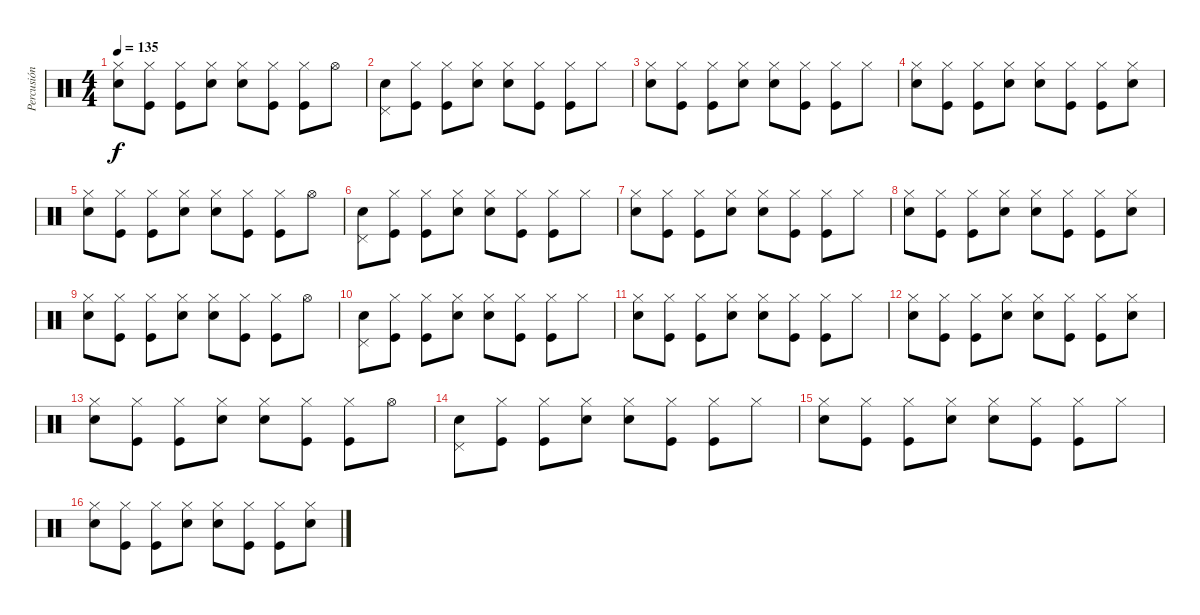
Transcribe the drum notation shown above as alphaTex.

\track ("Percusión" "Percusión") {instrument percussion}
\staff {score}
\articulation defaults
\ts (4 4)
\tempo 135
\clef neutral
\ks c
("Hi-Hat (closed)" "Snare (hit) 2").8{dy f} ("Hi-Hat (closed)" "Kick (hit)").8 ("Hi-Hat (closed)" "Kick (hit)").8 ("Hi-Hat (closed)" "Snare (hit) 2").8 ("Hi-Hat (closed)" "Snare (hit) 2").8 ("Hi-Hat (closed)" "Kick (hit)").8 ("Hi-Hat (closed)" "Kick (hit)").8 "Hi-Hat (open)".8 |
("Pedal Hi-Hat (hit)" "Snare (hit) 2").8 ("Hi-Hat (closed)" "Kick (hit)").8 ("Hi-Hat (closed)" "Kick (hit)").8 ("Hi-Hat (closed)" "Snare (hit) 2").8 ("Hi-Hat (closed)" "Snare (hit) 2").8 ("Hi-Hat (closed)" "Kick (hit)").8 ("Hi-Hat (closed)" "Kick (hit)").8 "Hi-Hat (closed)".8 |
("Hi-Hat (closed)" "Snare (hit) 2").8 ("Hi-Hat (closed)" "Kick (hit)").8 ("Hi-Hat (closed)" "Kick (hit)").8 ("Hi-Hat (closed)" "Snare (hit) 2").8 ("Hi-Hat (closed)" "Snare (hit) 2").8 ("Hi-Hat (closed)" "Kick (hit)").8 ("Hi-Hat (closed)" "Kick (hit)").8 "Hi-Hat (closed)".8 |
("Hi-Hat (closed)" "Snare (hit) 2").8 ("Hi-Hat (closed)" "Kick (hit)").8 ("Hi-Hat (closed)" "Kick (hit)").8 ("Hi-Hat (closed)" "Snare (hit) 2").8 ("Hi-Hat (closed)" "Snare (hit) 2").8 ("Hi-Hat (closed)" "Kick (hit)").8 ("Hi-Hat (closed)" "Kick (hit)").8 ("Hi-Hat (closed)" "Snare (hit) 2").8 |
("Hi-Hat (closed)" "Snare (hit) 2").8 ("Hi-Hat (closed)" "Kick (hit)").8 ("Hi-Hat (closed)" "Kick (hit)").8 ("Hi-Hat (closed)" "Snare (hit) 2").8 ("Hi-Hat (closed)" "Snare (hit) 2").8 ("Hi-Hat (closed)" "Kick (hit)").8 ("Hi-Hat (closed)" "Kick (hit)").8 "Hi-Hat (open)".8 |
("Pedal Hi-Hat (hit)" "Snare (hit) 2").8 ("Hi-Hat (closed)" "Kick (hit)").8 ("Hi-Hat (closed)" "Kick (hit)").8 ("Hi-Hat (closed)" "Snare (hit) 2").8 ("Hi-Hat (closed)" "Snare (hit) 2").8 ("Hi-Hat (closed)" "Kick (hit)").8 ("Hi-Hat (closed)" "Kick (hit)").8 "Hi-Hat (closed)".8 |
("Hi-Hat (closed)" "Snare (hit) 2").8 ("Hi-Hat (closed)" "Kick (hit)").8 ("Hi-Hat (closed)" "Kick (hit)").8 ("Hi-Hat (closed)" "Snare (hit) 2").8 ("Hi-Hat (closed)" "Snare (hit) 2").8 ("Hi-Hat (closed)" "Kick (hit)").8 ("Hi-Hat (closed)" "Kick (hit)").8 "Hi-Hat (closed)".8 |
("Hi-Hat (closed)" "Snare (hit) 2").8 ("Hi-Hat (closed)" "Kick (hit)").8 ("Hi-Hat (closed)" "Kick (hit)").8 ("Hi-Hat (closed)" "Snare (hit) 2").8 ("Hi-Hat (closed)" "Snare (hit) 2").8 ("Hi-Hat (closed)" "Kick (hit)").8 ("Hi-Hat (closed)" "Kick (hit)").8 ("Hi-Hat (closed)" "Snare (hit) 2").8 |
("Hi-Hat (closed)" "Snare (hit) 2").8 ("Hi-Hat (closed)" "Kick (hit)").8 ("Hi-Hat (closed)" "Kick (hit)").8 ("Hi-Hat (closed)" "Snare (hit) 2").8 ("Hi-Hat (closed)" "Snare (hit) 2").8 ("Hi-Hat (closed)" "Kick (hit)").8 ("Hi-Hat (closed)" "Kick (hit)").8 "Hi-Hat (open)".8 |
("Pedal Hi-Hat (hit)" "Snare (hit) 2").8 ("Hi-Hat (closed)" "Kick (hit)").8 ("Hi-Hat (closed)" "Kick (hit)").8 ("Hi-Hat (closed)" "Snare (hit) 2").8 ("Hi-Hat (closed)" "Snare (hit) 2").8 ("Hi-Hat (closed)" "Kick (hit)").8 ("Hi-Hat (closed)" "Kick (hit)").8 "Hi-Hat (closed)".8 |
("Hi-Hat (closed)" "Snare (hit) 2").8 ("Hi-Hat (closed)" "Kick (hit)").8 ("Hi-Hat (closed)" "Kick (hit)").8 ("Hi-Hat (closed)" "Snare (hit) 2").8 ("Hi-Hat (closed)" "Snare (hit) 2").8 ("Hi-Hat (closed)" "Kick (hit)").8 ("Hi-Hat (closed)" "Kick (hit)").8 "Hi-Hat (closed)".8 |
("Hi-Hat (closed)" "Snare (hit) 2").8 ("Hi-Hat (closed)" "Kick (hit)").8 ("Hi-Hat (closed)" "Kick (hit)").8 ("Hi-Hat (closed)" "Snare (hit) 2").8 ("Hi-Hat (closed)" "Snare (hit) 2").8 ("Hi-Hat (closed)" "Kick (hit)").8 ("Hi-Hat (closed)" "Kick (hit)").8 ("Hi-Hat (closed)" "Snare (hit) 2").8 |
("Hi-Hat (closed)" "Snare (hit) 2").8 ("Hi-Hat (closed)" "Kick (hit)").8 ("Hi-Hat (closed)" "Kick (hit)").8 ("Hi-Hat (closed)" "Snare (hit) 2").8 ("Hi-Hat (closed)" "Snare (hit) 2").8 ("Hi-Hat (closed)" "Kick (hit)").8 ("Hi-Hat (closed)" "Kick (hit)").8 "Hi-Hat (open)".8 |
("Pedal Hi-Hat (hit)" "Snare (hit) 2").8 ("Hi-Hat (closed)" "Kick (hit)").8 ("Hi-Hat (closed)" "Kick (hit)").8 ("Hi-Hat (closed)" "Snare (hit) 2").8 ("Hi-Hat (closed)" "Snare (hit) 2").8 ("Hi-Hat (closed)" "Kick (hit)").8 ("Hi-Hat (closed)" "Kick (hit)").8 "Hi-Hat (closed)".8 |
("Hi-Hat (closed)" "Snare (hit) 2").8 ("Hi-Hat (closed)" "Kick (hit)").8 ("Hi-Hat (closed)" "Kick (hit)").8 ("Hi-Hat (closed)" "Snare (hit) 2").8 ("Hi-Hat (closed)" "Snare (hit) 2").8 ("Hi-Hat (closed)" "Kick (hit)").8 ("Hi-Hat (closed)" "Kick (hit)").8 "Hi-Hat (closed)".8 |
("Hi-Hat (closed)" "Snare (hit) 2").8 ("Hi-Hat (closed)" "Kick (hit)").8 ("Hi-Hat (closed)" "Kick (hit)").8 ("Hi-Hat (closed)" "Snare (hit) 2").8 ("Hi-Hat (closed)" "Snare (hit) 2").8 ("Hi-Hat (closed)" "Kick (hit)").8 ("Hi-Hat (closed)" "Kick (hit)").8 ("Hi-Hat (closed)" "Snare (hit) 2").8
